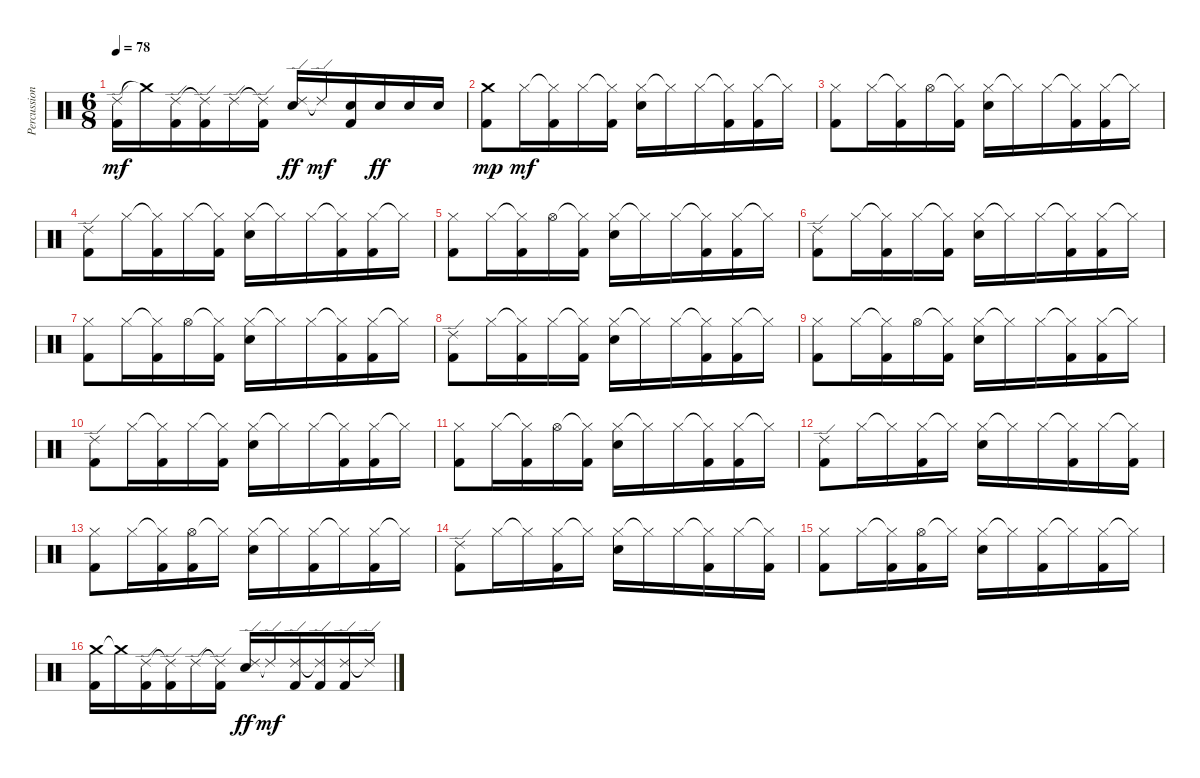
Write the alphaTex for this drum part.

\track ("Percussion" "Percussion") {instrument percussion}
\staff {score}
\articulation defaults
\ts (6 8)
\tempo 78
\clef neutral
\ks c
("Ride (edge) 2" "Kick (hit) 2").16{dy mf} "Crash medium (hit)"{t}.16 ("Ride (edge) 2" "Kick (hit) 2").16 ("Ride (edge) 2"{t} "Kick (hit) 2").16 "Ride (edge) 2".16 ("Ride (edge) 2"{t} "Kick (hit) 2").16 ("Ride (edge) 2" "Electric Snare (hit)").16{dy ff} "Ride (edge) 2"{t}.16{dy mf} ("Electric Snare (hit)" "Kick (hit) 2").16 "Electric Snare (hit)".16{dy ff} "Electric Snare (hit)".16 "Electric Snare (hit)".16 |
("Crash medium (hit)" "Kick (hit) 2").8{dy mp} "Hi-Hat (closed)".16{dy mf} ("Hi-Hat (closed)"{t} "Kick (hit) 2").16 "Hi-Hat (closed)".16 ("Hi-Hat (closed)"{t} "Kick (hit) 2").16 ("Hi-Hat (closed)" "Electric Snare (hit)").16 "Hi-Hat (closed)"{t}.16 "Hi-Hat (closed)".16 ("Hi-Hat (closed)"{t} "Kick (hit) 2").16 ("Hi-Hat (closed)" "Kick (hit) 2").16 "Hi-Hat (closed)"{t}.16 |
("Hi-Hat (closed)" "Kick (hit) 2").8 "Hi-Hat (closed)".16 ("Hi-Hat (closed)"{t} "Kick (hit) 2").16 "Hi-Hat (open)".16 ("Hi-Hat (closed)"{t} "Kick (hit) 2").16 ("Hi-Hat (closed)" "Electric Snare (hit)").16 "Hi-Hat (closed)"{t}.16 "Hi-Hat (closed)".16 ("Hi-Hat (closed)"{t} "Kick (hit) 2").16 ("Hi-Hat (closed)" "Kick (hit) 2").16 "Hi-Hat (closed)"{t}.16 |
("Ride (edge) 2" "Kick (hit) 2").8 "Hi-Hat (closed)".16 ("Hi-Hat (closed)"{t} "Kick (hit) 2").16 "Hi-Hat (closed)".16 ("Hi-Hat (closed)"{t} "Kick (hit) 2").16 ("Hi-Hat (closed)" "Electric Snare (hit)").16 "Hi-Hat (closed)"{t}.16 "Hi-Hat (closed)".16 ("Hi-Hat (closed)"{t} "Kick (hit) 2").16 ("Hi-Hat (closed)" "Kick (hit) 2").16 "Hi-Hat (closed)"{t}.16 |
("Hi-Hat (closed)" "Kick (hit) 2").8 "Hi-Hat (closed)".16 ("Hi-Hat (closed)"{t} "Kick (hit) 2").16 "Hi-Hat (open)".16 ("Hi-Hat (closed)"{t} "Kick (hit) 2").16 ("Hi-Hat (closed)" "Electric Snare (hit)").16 "Hi-Hat (closed)"{t}.16 "Hi-Hat (closed)".16 ("Hi-Hat (closed)"{t} "Kick (hit) 2").16 ("Hi-Hat (closed)" "Kick (hit) 2").16 "Hi-Hat (closed)"{t}.16 |
("Ride (edge) 2" "Kick (hit) 2").8 "Hi-Hat (closed)".16 ("Hi-Hat (closed)"{t} "Kick (hit) 2").16 "Hi-Hat (closed)".16 ("Hi-Hat (closed)"{t} "Kick (hit) 2").16 ("Hi-Hat (closed)" "Electric Snare (hit)").16 "Hi-Hat (closed)"{t}.16 "Hi-Hat (closed)".16 ("Hi-Hat (closed)"{t} "Kick (hit) 2").16 ("Hi-Hat (closed)" "Kick (hit) 2").16 "Hi-Hat (closed)"{t}.16 |
("Hi-Hat (closed)" "Kick (hit) 2").8 "Hi-Hat (closed)".16 ("Hi-Hat (closed)"{t} "Kick (hit) 2").16 "Hi-Hat (open)".16 ("Hi-Hat (closed)"{t} "Kick (hit) 2").16 ("Hi-Hat (closed)" "Electric Snare (hit)").16 "Hi-Hat (closed)"{t}.16 "Hi-Hat (closed)".16 ("Hi-Hat (closed)"{t} "Kick (hit) 2").16 ("Hi-Hat (closed)" "Kick (hit) 2").16 "Hi-Hat (closed)"{t}.16 |
("Ride (edge) 2" "Kick (hit) 2").8 "Hi-Hat (closed)".16 ("Hi-Hat (closed)"{t} "Kick (hit) 2").16 "Hi-Hat (closed)".16 ("Hi-Hat (closed)"{t} "Kick (hit) 2").16 ("Hi-Hat (closed)" "Electric Snare (hit)").16 "Hi-Hat (closed)"{t}.16 "Hi-Hat (closed)".16 ("Hi-Hat (closed)"{t} "Kick (hit) 2").16 ("Hi-Hat (closed)" "Kick (hit) 2").16 "Hi-Hat (closed)"{t}.16 |
("Hi-Hat (closed)" "Kick (hit) 2").8 "Hi-Hat (closed)".16 ("Hi-Hat (closed)"{t} "Kick (hit) 2").16 "Hi-Hat (open)".16 ("Hi-Hat (closed)"{t} "Kick (hit) 2").16 ("Hi-Hat (closed)" "Electric Snare (hit)").16 "Hi-Hat (closed)"{t}.16 "Hi-Hat (closed)".16 ("Hi-Hat (closed)"{t} "Kick (hit) 2").16 ("Hi-Hat (closed)" "Kick (hit) 2").16 "Hi-Hat (closed)"{t}.16 |
("Ride (edge) 2" "Kick (hit) 2").8 "Hi-Hat (closed)".16 ("Hi-Hat (closed)"{t} "Kick (hit) 2").16 "Hi-Hat (closed)".16 ("Hi-Hat (closed)"{t} "Kick (hit) 2").16 ("Hi-Hat (closed)" "Electric Snare (hit)").16 "Hi-Hat (closed)"{t}.16 "Hi-Hat (closed)".16 ("Hi-Hat (closed)"{t} "Kick (hit) 2").16 ("Hi-Hat (closed)" "Kick (hit) 2").16 "Hi-Hat (closed)"{t}.16 |
("Hi-Hat (closed)" "Kick (hit) 2").8 "Hi-Hat (closed)".16 ("Hi-Hat (closed)"{t} "Kick (hit) 2").16 "Hi-Hat (open)".16 ("Hi-Hat (closed)"{t} "Kick (hit) 2").16 ("Hi-Hat (closed)" "Electric Snare (hit)").16 "Hi-Hat (closed)"{t}.16 "Hi-Hat (closed)".16 ("Hi-Hat (closed)"{t} "Kick (hit) 2").16 ("Hi-Hat (closed)" "Kick (hit) 2").16 "Hi-Hat (closed)"{t}.16 |
("Ride (edge) 2" "Kick (hit) 2").8 "Hi-Hat (closed)".16 "Hi-Hat (closed)"{t}.16 ("Hi-Hat (closed)" "Kick (hit) 2").16 "Hi-Hat (closed)"{t}.16 ("Hi-Hat (closed)" "Electric Snare (hit)").16 "Hi-Hat (closed)"{t}.16 "Hi-Hat (closed)".16 ("Hi-Hat (closed)"{t} "Kick (hit) 2").16 "Hi-Hat (closed)".16 ("Hi-Hat (closed)"{t} "Kick (hit) 2").16 |
("Hi-Hat (closed)" "Kick (hit) 2").8 "Hi-Hat (closed)".16 ("Hi-Hat (closed)"{t} "Kick (hit) 2").16 ("Hi-Hat (open)" "Kick (hit) 2").16 "Hi-Hat (closed)"{t}.16 ("Hi-Hat (closed)" "Electric Snare (hit)").16 "Hi-Hat (closed)"{t}.16 ("Hi-Hat (closed)" "Kick (hit) 2").16 "Hi-Hat (closed)"{t}.16 ("Hi-Hat (closed)" "Kick (hit) 2").16 "Hi-Hat (closed)"{t}.16 |
("Ride (edge) 2" "Kick (hit) 2").8 "Hi-Hat (closed)".16 "Hi-Hat (closed)"{t}.16 ("Hi-Hat (closed)" "Kick (hit) 2").16 "Hi-Hat (closed)"{t}.16 ("Hi-Hat (closed)" "Electric Snare (hit)").16 "Hi-Hat (closed)"{t}.16 "Hi-Hat (closed)".16 ("Hi-Hat (closed)"{t} "Kick (hit) 2").16 "Hi-Hat (closed)".16 ("Hi-Hat (closed)"{t} "Kick (hit) 2").16 |
("Hi-Hat (closed)" "Kick (hit) 2").8 "Hi-Hat (closed)".16 ("Hi-Hat (closed)"{t} "Kick (hit) 2").16 ("Hi-Hat (open)" "Kick (hit) 2").16 "Hi-Hat (closed)"{t}.16 ("Hi-Hat (closed)" "Electric Snare (hit)").16 "Hi-Hat (closed)"{t}.16 ("Hi-Hat (closed)" "Kick (hit) 2").16 "Hi-Hat (closed)"{t}.16 ("Hi-Hat (closed)" "Kick (hit) 2").16 "Hi-Hat (closed)"{t}.16 |
("Crash medium (hit)" "Kick (hit) 2").16 "Crash medium (hit)"{t}.16 ("Ride (edge) 2" "Kick (hit) 2").16 ("Ride (edge) 2"{t} "Kick (hit) 2").16 "Ride (edge) 2".16 ("Ride (edge) 2"{t} "Kick (hit) 2").16 ("Ride (edge) 2" "Electric Snare (hit)").16{dy ff} "Ride (edge) 2"{t}.16{dy mf} ("Ride (edge) 2" "Kick (hit) 2").16 ("Ride (edge) 2"{t} "Kick (hit) 2").16 ("Ride (edge) 2" "Kick (hit) 2").16 "Ride (edge) 2"{t}.16
